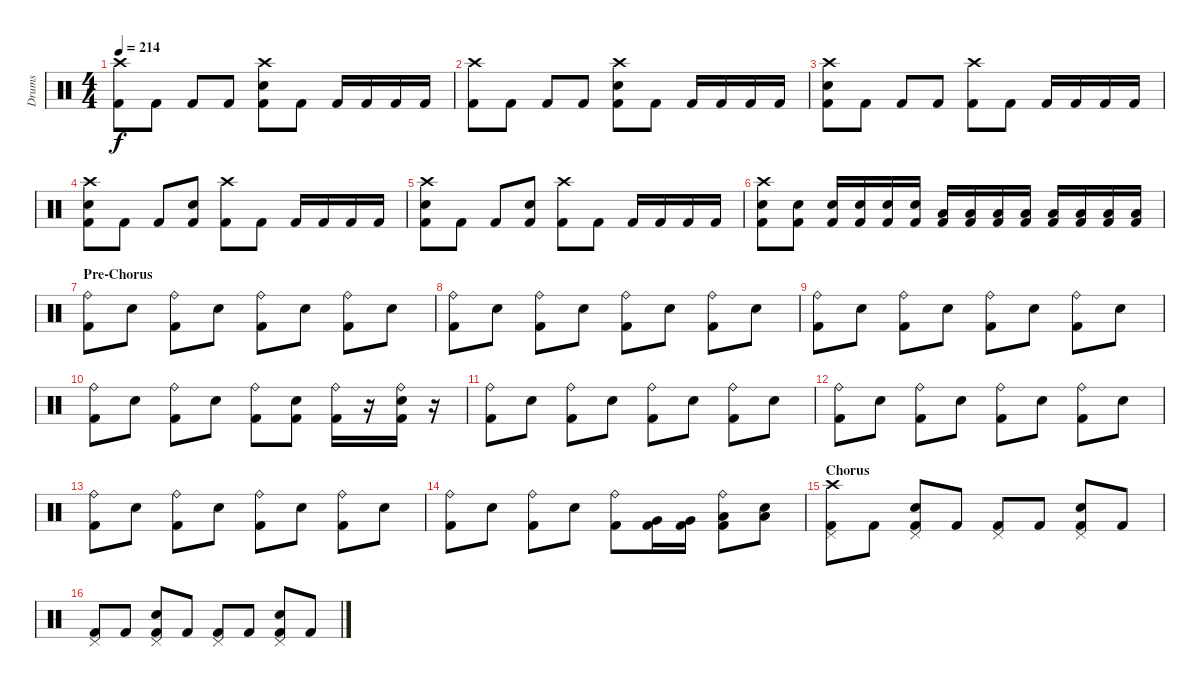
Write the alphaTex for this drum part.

\track ("Drums" "Drums") {instrument percussion}
\staff {score}
\articulation defaults
\ts (4 4)
\tempo 214
\clef neutral
\ks c
("Crash high (hit)" "Kick (hit) 2").8{dy f} "Kick (hit) 2".8 "Kick (hit) 2".8 "Kick (hit) 2".8 ("Crash high (hit)" "Electric Snare (hit)" "Kick (hit) 2").8 "Kick (hit) 2".8 "Kick (hit) 2".16 "Kick (hit) 2".16 "Kick (hit) 2".16 "Kick (hit) 2".16 |
("Crash high (hit)" "Kick (hit) 2").8 "Kick (hit) 2".8 "Kick (hit) 2".8 "Kick (hit) 2".8 ("Crash high (hit)" "Electric Snare (hit)" "Kick (hit) 2").8 "Kick (hit) 2".8 "Kick (hit) 2".16 "Kick (hit) 2".16 "Kick (hit) 2".16 "Kick (hit) 2".16 |
("Crash high (hit)" "Electric Snare (hit)" "Kick (hit) 2").8 "Kick (hit) 2".8 "Kick (hit) 2".8 "Kick (hit) 2".8 ("Crash high (hit)" "Kick (hit) 2").8 "Kick (hit) 2".8 "Kick (hit) 2".16 "Kick (hit) 2".16 "Kick (hit) 2".16 "Kick (hit) 2".16 |
("Crash high (hit)" "Electric Snare (hit)" "Kick (hit) 2").8 "Kick (hit) 2".8 "Kick (hit) 2".8 ("Electric Snare (hit)" "Kick (hit) 2").8 ("Crash high (hit)" "Kick (hit) 2").8 "Kick (hit) 2".8 "Kick (hit) 2".16 "Kick (hit) 2".16 "Kick (hit) 2".16 "Kick (hit) 2".16 |
("Crash high (hit)" "Electric Snare (hit)" "Kick (hit) 2").8 "Kick (hit) 2".8 "Kick (hit) 2".8 ("Electric Snare (hit)" "Kick (hit) 2").8 ("Crash high (hit)" "Kick (hit) 2").8 "Kick (hit) 2".8 "Kick (hit) 2".16 "Kick (hit) 2".16 "Kick (hit) 2".16 "Kick (hit) 2".16 |
("Crash high (hit)" "Electric Snare (hit)" "Kick (hit) 2").8 ("Electric Snare (hit)" "Kick (hit) 2").8 ("Electric Snare (hit)" "Kick (hit) 2").16 ("Electric Snare (hit)" "Kick (hit) 2").16 ("Electric Snare (hit)" "Kick (hit) 2").16 ("Electric Snare (hit)" "Kick (hit) 2").16 ("Low Tom (hit)" "Kick (hit) 2").16 ("Low Tom (hit)" "Kick (hit) 2").16 ("Low Tom (hit)" "Kick (hit) 2").16 ("Low Tom (hit)" "Kick (hit) 2").16 ("Low Floor Tom (hit)" "Kick (hit) 2").16 ("Low Floor Tom (hit)" "Kick (hit) 2").16 ("Low Floor Tom (hit)" "Kick (hit) 2").16 ("Low Floor Tom (hit)" "Kick (hit) 2").16 |
\section ("" "Pre-Chorus")
("Ride (bell)" "Kick (hit) 2").8 "Electric Snare (hit)".8 ("Ride (bell)" "Kick (hit) 2").8 "Electric Snare (hit)".8 ("Ride (bell)" "Kick (hit) 2").8 "Electric Snare (hit)".8 ("Ride (bell)" "Kick (hit) 2").8 "Electric Snare (hit)".8 |
("Ride (bell)" "Kick (hit) 2").8 "Electric Snare (hit)".8 ("Ride (bell)" "Kick (hit) 2").8 "Electric Snare (hit)".8 ("Ride (bell)" "Kick (hit) 2").8 "Electric Snare (hit)".8 ("Ride (bell)" "Kick (hit) 2").8 "Electric Snare (hit)".8 |
("Ride (bell)" "Kick (hit) 2").8 "Electric Snare (hit)".8 ("Ride (bell)" "Kick (hit) 2").8 "Electric Snare (hit)".8 ("Ride (bell)" "Kick (hit) 2").8 "Electric Snare (hit)".8 ("Ride (bell)" "Kick (hit) 2").8 "Electric Snare (hit)".8 |
("Ride (bell)" "Kick (hit) 2").8 "Electric Snare (hit)".8 ("Ride (bell)" "Kick (hit) 2").8 "Electric Snare (hit)".8 ("Ride (bell)" "Kick (hit) 2").8 ("Electric Snare (hit)" "Kick (hit) 2").8 ("Ride (bell)" "Kick (hit) 2").16 r.16 ("Ride (bell)" "Electric Snare (hit)" "Kick (hit) 2").16 r.16 |
("Ride (bell)" "Kick (hit) 2").8 "Electric Snare (hit)".8 ("Ride (bell)" "Kick (hit) 2").8 "Electric Snare (hit)".8 ("Ride (bell)" "Kick (hit) 2").8 "Electric Snare (hit)".8 ("Ride (bell)" "Kick (hit) 2").8 "Electric Snare (hit)".8 |
("Ride (bell)" "Kick (hit) 2").8 "Electric Snare (hit)".8 ("Ride (bell)" "Kick (hit) 2").8 "Electric Snare (hit)".8 ("Ride (bell)" "Kick (hit) 2").8 "Electric Snare (hit)".8 ("Ride (bell)" "Kick (hit) 2").8 "Electric Snare (hit)".8 |
("Ride (bell)" "Kick (hit) 2").8 "Electric Snare (hit)".8 ("Ride (bell)" "Kick (hit) 2").8 "Electric Snare (hit)".8 ("Ride (bell)" "Kick (hit) 2").8 "Electric Snare (hit)".8 ("Ride (bell)" "Kick (hit) 2").8 "Electric Snare (hit)".8 |
("Ride (bell)" "Kick (hit) 2").8 "Electric Snare (hit)".8 ("Ride (bell)" "Kick (hit) 2").8 "Electric Snare (hit)".8 ("Ride (bell)" "Kick (hit) 2").8 ("Very Low Tom (hit)" "Kick (hit) 2").16 ("Very Low Tom (hit)" "Kick (hit) 2").16 ("Ride (bell)" "Low Floor Tom (hit)" "Kick (hit) 2").8 ("Low Floor Tom (hit)" "Electric Snare (hit)").8 |
\section ("" "Chorus")
("Pedal Hi-Hat (hit)" "Crash high (hit)" "Kick (hit) 2").8 "Kick (hit) 2".8 ("Pedal Hi-Hat (hit)" "Electric Snare (hit)" "Kick (hit) 2").8 "Kick (hit) 2".8 ("Pedal Hi-Hat (hit)" "Kick (hit) 2").8 "Kick (hit) 2".8 ("Pedal Hi-Hat (hit)" "Electric Snare (hit)" "Kick (hit) 2").8 "Kick (hit) 2".8 |
("Pedal Hi-Hat (hit)" "Kick (hit) 2").8 "Kick (hit) 2".8 ("Pedal Hi-Hat (hit)" "Electric Snare (hit)" "Kick (hit) 2").8 "Kick (hit) 2".8 ("Pedal Hi-Hat (hit)" "Kick (hit) 2").8 "Kick (hit) 2".8 ("Pedal Hi-Hat (hit)" "Electric Snare (hit)" "Kick (hit) 2").8 "Kick (hit) 2".8
